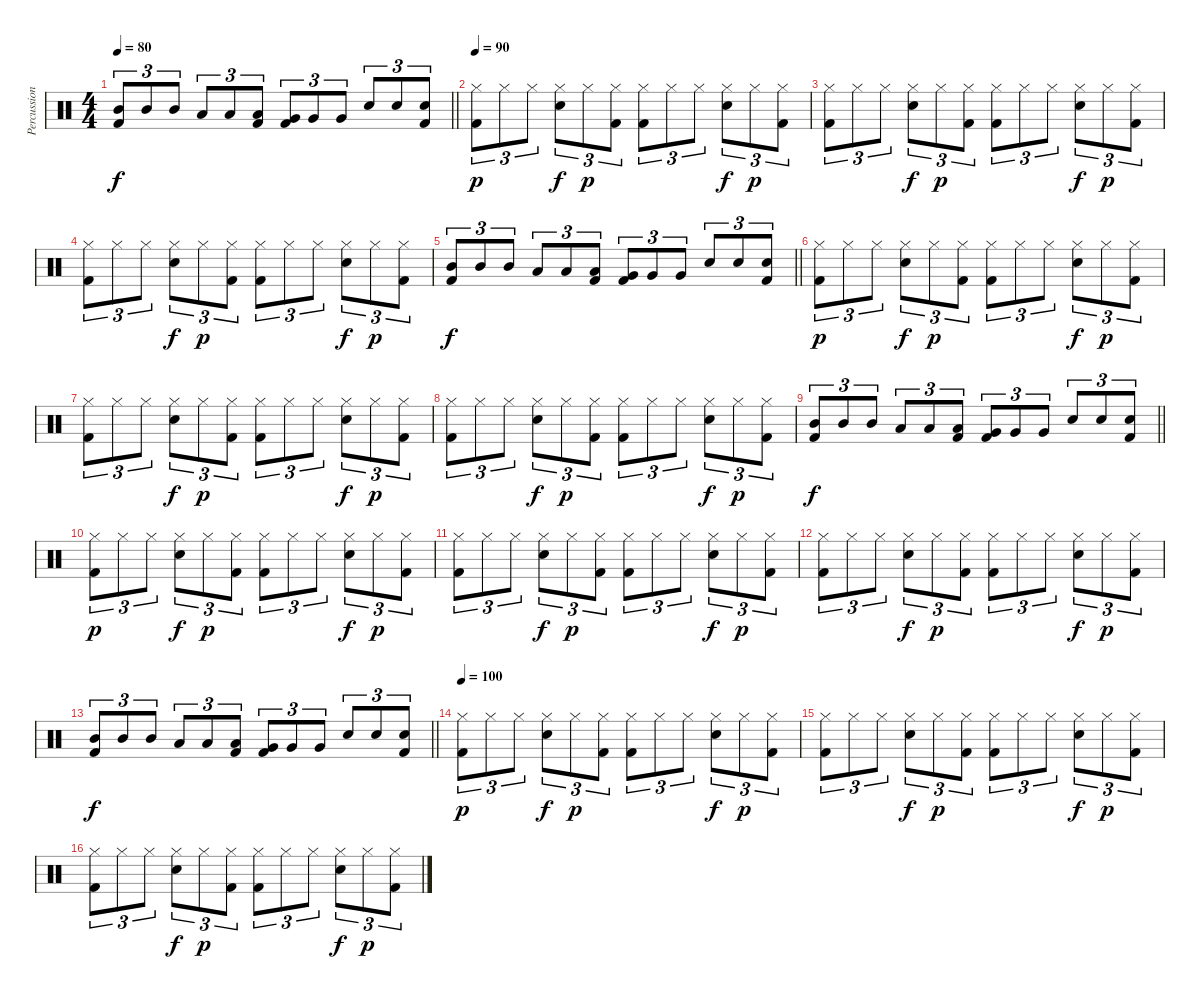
\track ("Percussion" "Percussion") {instrument percussion}
\staff {score}
\articulation defaults
\ts (4 4)
\tempo 80
\clef neutral
\barLineRight lightlight
\ks c
("Mid Tom (hit)" "Kick (hit) 2").8{tu (3 2) dy f} "Mid Tom (hit)".8{tu (3 2)} "Mid Tom (hit)".8{tu (3 2)} "Low Tom (hit)".8{tu (3 2)} "Low Tom (hit)".8{tu (3 2)} ("Low Tom (hit)" "Kick (hit) 2").8{tu (3 2)} ("Very Low Tom (hit)" "Kick (hit) 2").8{tu (3 2)} "Very Low Tom (hit)".8{tu (3 2)} "Very Low Tom (hit)".8{tu (3 2)} "Snare (hit) 2".8{tu (3 2)} "Snare (hit) 2".8{tu (3 2)} ("Snare (hit) 2" "Kick (hit) 2").8{tu (3 2)} |
\tempo 90
("Hi-Hat (closed)" "Kick (hit) 2").8{tu (3 2) dy p} "Hi-Hat (closed)".8{tu (3 2)} "Hi-Hat (closed)".8{tu (3 2)} ("Hi-Hat (closed)" "Snare (hit) 2").8{tu (3 2) dy f} "Hi-Hat (closed)".8{tu (3 2) dy p} ("Hi-Hat (closed)" "Kick (hit) 2").8{tu (3 2)} ("Hi-Hat (closed)" "Kick (hit) 2").8{tu (3 2)} "Hi-Hat (closed)".8{tu (3 2)} "Hi-Hat (closed)".8{tu (3 2)} ("Hi-Hat (closed)" "Snare (hit) 2").8{tu (3 2) dy f} "Hi-Hat (closed)".8{tu (3 2) dy p} ("Hi-Hat (closed)" "Kick (hit) 2").8{tu (3 2)} |
("Hi-Hat (closed)" "Kick (hit) 2").8{tu (3 2)} "Hi-Hat (closed)".8{tu (3 2)} "Hi-Hat (closed)".8{tu (3 2)} ("Hi-Hat (closed)" "Snare (hit) 2").8{tu (3 2) dy f} "Hi-Hat (closed)".8{tu (3 2) dy p} ("Hi-Hat (closed)" "Kick (hit) 2").8{tu (3 2)} ("Hi-Hat (closed)" "Kick (hit) 2").8{tu (3 2)} "Hi-Hat (closed)".8{tu (3 2)} "Hi-Hat (closed)".8{tu (3 2)} ("Hi-Hat (closed)" "Snare (hit) 2").8{tu (3 2) dy f} "Hi-Hat (closed)".8{tu (3 2) dy p} ("Hi-Hat (closed)" "Kick (hit) 2").8{tu (3 2)} |
("Hi-Hat (closed)" "Kick (hit) 2").8{tu (3 2)} "Hi-Hat (closed)".8{tu (3 2)} "Hi-Hat (closed)".8{tu (3 2)} ("Hi-Hat (closed)" "Snare (hit) 2").8{tu (3 2) dy f} "Hi-Hat (closed)".8{tu (3 2) dy p} ("Hi-Hat (closed)" "Kick (hit) 2").8{tu (3 2)} ("Hi-Hat (closed)" "Kick (hit) 2").8{tu (3 2)} "Hi-Hat (closed)".8{tu (3 2)} "Hi-Hat (closed)".8{tu (3 2)} ("Hi-Hat (closed)" "Snare (hit) 2").8{tu (3 2) dy f} "Hi-Hat (closed)".8{tu (3 2) dy p} ("Hi-Hat (closed)" "Kick (hit) 2").8{tu (3 2)} |
\barLineRight lightlight
("Mid Tom (hit)" "Kick (hit) 2").8{tu (3 2) dy f} "Mid Tom (hit)".8{tu (3 2)} "Mid Tom (hit)".8{tu (3 2)} "Low Tom (hit)".8{tu (3 2)} "Low Tom (hit)".8{tu (3 2)} ("Low Tom (hit)" "Kick (hit) 2").8{tu (3 2)} ("Very Low Tom (hit)" "Kick (hit) 2").8{tu (3 2)} "Very Low Tom (hit)".8{tu (3 2)} "Very Low Tom (hit)".8{tu (3 2)} "Snare (hit) 2".8{tu (3 2)} "Snare (hit) 2".8{tu (3 2)} ("Snare (hit) 2" "Kick (hit) 2").8{tu (3 2)} |
("Hi-Hat (closed)" "Kick (hit) 2").8{tu (3 2) dy p} "Hi-Hat (closed)".8{tu (3 2)} "Hi-Hat (closed)".8{tu (3 2)} ("Hi-Hat (closed)" "Snare (hit) 2").8{tu (3 2) dy f} "Hi-Hat (closed)".8{tu (3 2) dy p} ("Hi-Hat (closed)" "Kick (hit) 2").8{tu (3 2)} ("Hi-Hat (closed)" "Kick (hit) 2").8{tu (3 2)} "Hi-Hat (closed)".8{tu (3 2)} "Hi-Hat (closed)".8{tu (3 2)} ("Hi-Hat (closed)" "Snare (hit) 2").8{tu (3 2) dy f} "Hi-Hat (closed)".8{tu (3 2) dy p} ("Hi-Hat (closed)" "Kick (hit) 2").8{tu (3 2)} |
("Hi-Hat (closed)" "Kick (hit) 2").8{tu (3 2)} "Hi-Hat (closed)".8{tu (3 2)} "Hi-Hat (closed)".8{tu (3 2)} ("Hi-Hat (closed)" "Snare (hit) 2").8{tu (3 2) dy f} "Hi-Hat (closed)".8{tu (3 2) dy p} ("Hi-Hat (closed)" "Kick (hit) 2").8{tu (3 2)} ("Hi-Hat (closed)" "Kick (hit) 2").8{tu (3 2)} "Hi-Hat (closed)".8{tu (3 2)} "Hi-Hat (closed)".8{tu (3 2)} ("Hi-Hat (closed)" "Snare (hit) 2").8{tu (3 2) dy f} "Hi-Hat (closed)".8{tu (3 2) dy p} ("Hi-Hat (closed)" "Kick (hit) 2").8{tu (3 2)} |
("Hi-Hat (closed)" "Kick (hit) 2").8{tu (3 2)} "Hi-Hat (closed)".8{tu (3 2)} "Hi-Hat (closed)".8{tu (3 2)} ("Hi-Hat (closed)" "Snare (hit) 2").8{tu (3 2) dy f} "Hi-Hat (closed)".8{tu (3 2) dy p} ("Hi-Hat (closed)" "Kick (hit) 2").8{tu (3 2)} ("Hi-Hat (closed)" "Kick (hit) 2").8{tu (3 2)} "Hi-Hat (closed)".8{tu (3 2)} "Hi-Hat (closed)".8{tu (3 2)} ("Hi-Hat (closed)" "Snare (hit) 2").8{tu (3 2) dy f} "Hi-Hat (closed)".8{tu (3 2) dy p} ("Hi-Hat (closed)" "Kick (hit) 2").8{tu (3 2)} |
\barLineRight lightlight
("Mid Tom (hit)" "Kick (hit) 2").8{tu (3 2) dy f} "Mid Tom (hit)".8{tu (3 2)} "Mid Tom (hit)".8{tu (3 2)} "Low Tom (hit)".8{tu (3 2)} "Low Tom (hit)".8{tu (3 2)} ("Low Tom (hit)" "Kick (hit) 2").8{tu (3 2)} ("Very Low Tom (hit)" "Kick (hit) 2").8{tu (3 2)} "Very Low Tom (hit)".8{tu (3 2)} "Very Low Tom (hit)".8{tu (3 2)} "Snare (hit) 2".8{tu (3 2)} "Snare (hit) 2".8{tu (3 2)} ("Snare (hit) 2" "Kick (hit) 2").8{tu (3 2)} |
("Hi-Hat (closed)" "Kick (hit) 2").8{tu (3 2) dy p} "Hi-Hat (closed)".8{tu (3 2)} "Hi-Hat (closed)".8{tu (3 2)} ("Hi-Hat (closed)" "Snare (hit) 2").8{tu (3 2) dy f} "Hi-Hat (closed)".8{tu (3 2) dy p} ("Hi-Hat (closed)" "Kick (hit) 2").8{tu (3 2)} ("Hi-Hat (closed)" "Kick (hit) 2").8{tu (3 2)} "Hi-Hat (closed)".8{tu (3 2)} "Hi-Hat (closed)".8{tu (3 2)} ("Hi-Hat (closed)" "Snare (hit) 2").8{tu (3 2) dy f} "Hi-Hat (closed)".8{tu (3 2) dy p} ("Hi-Hat (closed)" "Kick (hit) 2").8{tu (3 2)} |
("Hi-Hat (closed)" "Kick (hit) 2").8{tu (3 2)} "Hi-Hat (closed)".8{tu (3 2)} "Hi-Hat (closed)".8{tu (3 2)} ("Hi-Hat (closed)" "Snare (hit) 2").8{tu (3 2) dy f} "Hi-Hat (closed)".8{tu (3 2) dy p} ("Hi-Hat (closed)" "Kick (hit) 2").8{tu (3 2)} ("Hi-Hat (closed)" "Kick (hit) 2").8{tu (3 2)} "Hi-Hat (closed)".8{tu (3 2)} "Hi-Hat (closed)".8{tu (3 2)} ("Hi-Hat (closed)" "Snare (hit) 2").8{tu (3 2) dy f} "Hi-Hat (closed)".8{tu (3 2) dy p} ("Hi-Hat (closed)" "Kick (hit) 2").8{tu (3 2)} |
("Hi-Hat (closed)" "Kick (hit) 2").8{tu (3 2)} "Hi-Hat (closed)".8{tu (3 2)} "Hi-Hat (closed)".8{tu (3 2)} ("Hi-Hat (closed)" "Snare (hit) 2").8{tu (3 2) dy f} "Hi-Hat (closed)".8{tu (3 2) dy p} ("Hi-Hat (closed)" "Kick (hit) 2").8{tu (3 2)} ("Hi-Hat (closed)" "Kick (hit) 2").8{tu (3 2)} "Hi-Hat (closed)".8{tu (3 2)} "Hi-Hat (closed)".8{tu (3 2)} ("Hi-Hat (closed)" "Snare (hit) 2").8{tu (3 2) dy f} "Hi-Hat (closed)".8{tu (3 2) dy p} ("Hi-Hat (closed)" "Kick (hit) 2").8{tu (3 2)} |
\barLineRight lightlight
("Mid Tom (hit)" "Kick (hit) 2").8{tu (3 2) dy f} "Mid Tom (hit)".8{tu (3 2)} "Mid Tom (hit)".8{tu (3 2)} "Low Tom (hit)".8{tu (3 2)} "Low Tom (hit)".8{tu (3 2)} ("Low Tom (hit)" "Kick (hit) 2").8{tu (3 2)} ("Very Low Tom (hit)" "Kick (hit) 2").8{tu (3 2)} "Very Low Tom (hit)".8{tu (3 2)} "Very Low Tom (hit)".8{tu (3 2)} "Snare (hit) 2".8{tu (3 2)} "Snare (hit) 2".8{tu (3 2)} ("Snare (hit) 2" "Kick (hit) 2").8{tu (3 2)} |
\tempo 100
("Hi-Hat (closed)" "Kick (hit) 2").8{tu (3 2) dy p} "Hi-Hat (closed)".8{tu (3 2)} "Hi-Hat (closed)".8{tu (3 2)} ("Hi-Hat (closed)" "Snare (hit) 2").8{tu (3 2) dy f} "Hi-Hat (closed)".8{tu (3 2) dy p} ("Hi-Hat (closed)" "Kick (hit) 2").8{tu (3 2)} ("Hi-Hat (closed)" "Kick (hit) 2").8{tu (3 2)} "Hi-Hat (closed)".8{tu (3 2)} "Hi-Hat (closed)".8{tu (3 2)} ("Hi-Hat (closed)" "Snare (hit) 2").8{tu (3 2) dy f} "Hi-Hat (closed)".8{tu (3 2) dy p} ("Hi-Hat (closed)" "Kick (hit) 2").8{tu (3 2)} |
("Hi-Hat (closed)" "Kick (hit) 2").8{tu (3 2)} "Hi-Hat (closed)".8{tu (3 2)} "Hi-Hat (closed)".8{tu (3 2)} ("Hi-Hat (closed)" "Snare (hit) 2").8{tu (3 2) dy f} "Hi-Hat (closed)".8{tu (3 2) dy p} ("Hi-Hat (closed)" "Kick (hit) 2").8{tu (3 2)} ("Hi-Hat (closed)" "Kick (hit) 2").8{tu (3 2)} "Hi-Hat (closed)".8{tu (3 2)} "Hi-Hat (closed)".8{tu (3 2)} ("Hi-Hat (closed)" "Snare (hit) 2").8{tu (3 2) dy f} "Hi-Hat (closed)".8{tu (3 2) dy p} ("Hi-Hat (closed)" "Kick (hit) 2").8{tu (3 2)} |
("Hi-Hat (closed)" "Kick (hit) 2").8{tu (3 2)} "Hi-Hat (closed)".8{tu (3 2)} "Hi-Hat (closed)".8{tu (3 2)} ("Hi-Hat (closed)" "Snare (hit) 2").8{tu (3 2) dy f} "Hi-Hat (closed)".8{tu (3 2) dy p} ("Hi-Hat (closed)" "Kick (hit) 2").8{tu (3 2)} ("Hi-Hat (closed)" "Kick (hit) 2").8{tu (3 2)} "Hi-Hat (closed)".8{tu (3 2)} "Hi-Hat (closed)".8{tu (3 2)} ("Hi-Hat (closed)" "Snare (hit) 2").8{tu (3 2) dy f} "Hi-Hat (closed)".8{tu (3 2) dy p} ("Hi-Hat (closed)" "Kick (hit) 2").8{tu (3 2)}
